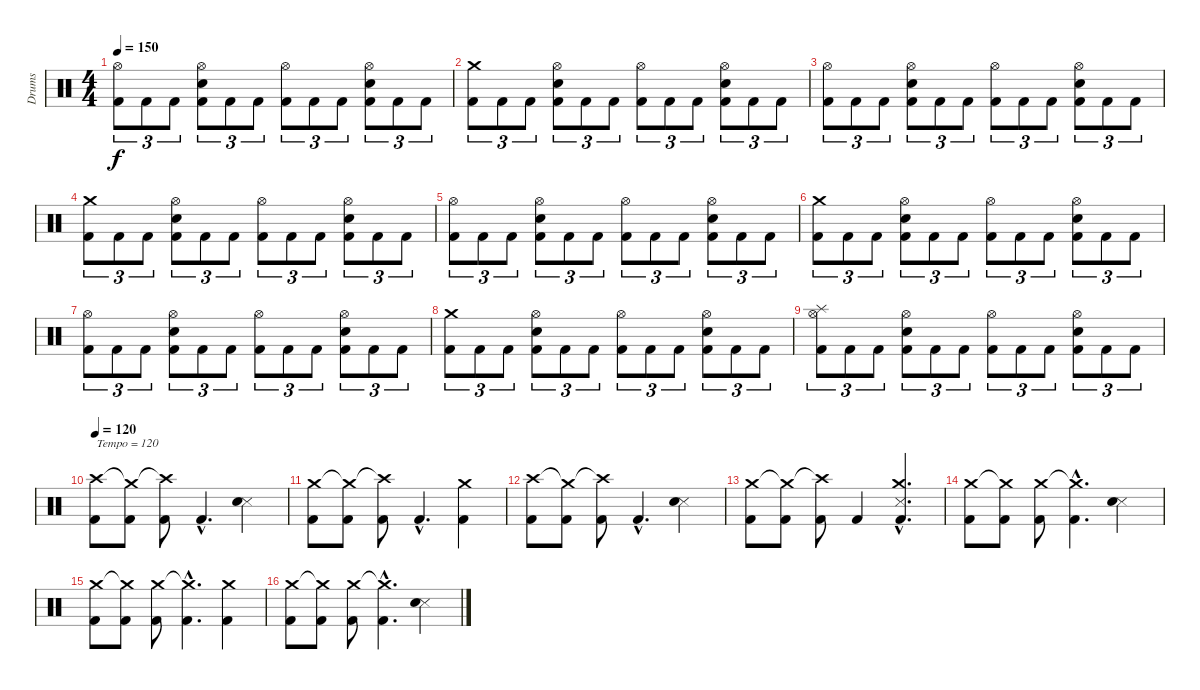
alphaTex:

\track ("Drums" "Drums") {instrument percussion}
\staff {score}
\articulation defaults
\ts (4 4)
\tempo 150
\clef neutral
\ks c
("Hi-Hat (open)" "Kick (hit) 2").8{tu (3 2) dy f} "Kick (hit) 2".8{tu (3 2)} "Kick (hit) 2".8{tu (3 2)} ("Hi-Hat (open)" "Electric Snare (hit)" "Kick (hit) 2").8{tu (3 2)} "Kick (hit) 2".8{tu (3 2)} "Kick (hit) 2".8{tu (3 2)} ("Hi-Hat (open)" "Kick (hit) 2").8{tu (3 2)} "Kick (hit) 2".8{tu (3 2)} "Kick (hit) 2".8{tu (3 2)} ("Hi-Hat (open)" "Electric Snare (hit)" "Kick (hit) 2").8{tu (3 2)} "Kick (hit) 2".8{tu (3 2)} "Kick (hit) 2".8{tu (3 2)} |
("Crash medium (hit)" "Kick (hit) 2").8{tu (3 2)} "Kick (hit) 2".8{tu (3 2)} "Kick (hit) 2".8{tu (3 2)} ("Hi-Hat (open)" "Electric Snare (hit)" "Kick (hit) 2").8{tu (3 2)} "Kick (hit) 2".8{tu (3 2)} "Kick (hit) 2".8{tu (3 2)} ("Hi-Hat (open)" "Kick (hit) 2").8{tu (3 2)} "Kick (hit) 2".8{tu (3 2)} "Kick (hit) 2".8{tu (3 2)} ("Hi-Hat (open)" "Electric Snare (hit)" "Kick (hit) 2").8{tu (3 2)} "Kick (hit) 2".8{tu (3 2)} "Kick (hit) 2".8{tu (3 2)} |
("Hi-Hat (open)" "Kick (hit) 2").8{tu (3 2)} "Kick (hit) 2".8{tu (3 2)} "Kick (hit) 2".8{tu (3 2)} ("Hi-Hat (open)" "Electric Snare (hit)" "Kick (hit) 2").8{tu (3 2)} "Kick (hit) 2".8{tu (3 2)} "Kick (hit) 2".8{tu (3 2)} ("Hi-Hat (open)" "Kick (hit) 2").8{tu (3 2)} "Kick (hit) 2".8{tu (3 2)} "Kick (hit) 2".8{tu (3 2)} ("Hi-Hat (open)" "Electric Snare (hit)" "Kick (hit) 2").8{tu (3 2)} "Kick (hit) 2".8{tu (3 2)} "Kick (hit) 2".8{tu (3 2)} |
("Crash medium (hit)" "Kick (hit) 2").8{tu (3 2)} "Kick (hit) 2".8{tu (3 2)} "Kick (hit) 2".8{tu (3 2)} ("Hi-Hat (open)" "Electric Snare (hit)" "Kick (hit) 2").8{tu (3 2)} "Kick (hit) 2".8{tu (3 2)} "Kick (hit) 2".8{tu (3 2)} ("Hi-Hat (open)" "Kick (hit) 2").8{tu (3 2)} "Kick (hit) 2".8{tu (3 2)} "Kick (hit) 2".8{tu (3 2)} ("Hi-Hat (open)" "Electric Snare (hit)" "Kick (hit) 2").8{tu (3 2)} "Kick (hit) 2".8{tu (3 2)} "Kick (hit) 2".8{tu (3 2)} |
("Hi-Hat (open)" "Kick (hit) 2").8{tu (3 2)} "Kick (hit) 2".8{tu (3 2)} "Kick (hit) 2".8{tu (3 2)} ("Hi-Hat (open)" "Electric Snare (hit)" "Kick (hit) 2").8{tu (3 2)} "Kick (hit) 2".8{tu (3 2)} "Kick (hit) 2".8{tu (3 2)} ("Hi-Hat (open)" "Kick (hit) 2").8{tu (3 2)} "Kick (hit) 2".8{tu (3 2)} "Kick (hit) 2".8{tu (3 2)} ("Hi-Hat (open)" "Electric Snare (hit)" "Kick (hit) 2").8{tu (3 2)} "Kick (hit) 2".8{tu (3 2)} "Kick (hit) 2".8{tu (3 2)} |
("Crash medium (hit)" "Kick (hit) 2").8{tu (3 2)} "Kick (hit) 2".8{tu (3 2)} "Kick (hit) 2".8{tu (3 2)} ("Hi-Hat (open)" "Electric Snare (hit)" "Kick (hit) 2").8{tu (3 2)} "Kick (hit) 2".8{tu (3 2)} "Kick (hit) 2".8{tu (3 2)} ("Hi-Hat (open)" "Kick (hit) 2").8{tu (3 2)} "Kick (hit) 2".8{tu (3 2)} "Kick (hit) 2".8{tu (3 2)} ("Hi-Hat (open)" "Electric Snare (hit)" "Kick (hit) 2").8{tu (3 2)} "Kick (hit) 2".8{tu (3 2)} "Kick (hit) 2".8{tu (3 2)} |
("Hi-Hat (open)" "Kick (hit) 2").8{tu (3 2)} "Kick (hit) 2".8{tu (3 2)} "Kick (hit) 2".8{tu (3 2)} ("Hi-Hat (open)" "Electric Snare (hit)" "Kick (hit) 2").8{tu (3 2)} "Kick (hit) 2".8{tu (3 2)} "Kick (hit) 2".8{tu (3 2)} ("Hi-Hat (open)" "Kick (hit) 2").8{tu (3 2)} "Kick (hit) 2".8{tu (3 2)} "Kick (hit) 2".8{tu (3 2)} ("Hi-Hat (open)" "Electric Snare (hit)" "Kick (hit) 2").8{tu (3 2)} "Kick (hit) 2".8{tu (3 2)} "Kick (hit) 2".8{tu (3 2)} |
("Crash medium (hit)" "Kick (hit) 2").8{tu (3 2)} "Kick (hit) 2".8{tu (3 2)} "Kick (hit) 2".8{tu (3 2)} ("Hi-Hat (open)" "Electric Snare (hit)" "Kick (hit) 2").8{tu (3 2)} "Kick (hit) 2".8{tu (3 2)} "Kick (hit) 2".8{tu (3 2)} ("Hi-Hat (open)" "Kick (hit) 2").8{tu (3 2)} "Kick (hit) 2".8{tu (3 2)} "Kick (hit) 2".8{tu (3 2)} ("Hi-Hat (open)" "Electric Snare (hit)" "Kick (hit) 2").8{tu (3 2)} "Kick (hit) 2".8{tu (3 2)} "Kick (hit) 2".8{tu (3 2)} |
("Splash (hit)" "Hi-Hat (open)" "Kick (hit) 2").8{tu (3 2)} "Kick (hit) 2".8{tu (3 2)} "Kick (hit) 2".8{tu (3 2)} ("Hi-Hat (open)" "Electric Snare (hit)" "Kick (hit) 2").8{tu (3 2)} "Kick (hit) 2".8{tu (3 2)} "Kick (hit) 2".8{tu (3 2)} ("Hi-Hat (open)" "Kick (hit) 2").8{tu (3 2)} "Kick (hit) 2".8{tu (3 2)} "Kick (hit) 2".8{tu (3 2)} ("Hi-Hat (open)" "Electric Snare (hit)" "Kick (hit) 2").8{tu (3 2)} "Kick (hit) 2".8{tu (3 2)} "Kick (hit) 2".8{tu (3 2)} |
\tempo 120
("Crash high (hit)" "Kick (hit) 2").8{txt "Tempo = 120"} ("Crash medium (hit)"{t} "Kick (hit) 2").8 ("Crash high (hit)"{t} "Kick (hit) 2").8 "Kick (hit) 2"{hac}.4{d} ("Snare (side stick) 3" "Electric Snare (hit)").4 |
("Crash medium (hit)" "Kick (hit) 2").8 ("Crash medium (hit)"{t} "Kick (hit) 2").8 ("Crash high (hit)"{t} "Kick (hit) 2").8 "Kick (hit) 2"{hac}.4{d} ("Crash medium (hit)" "Kick (hit) 2").4 |
("Crash high (hit)" "Kick (hit) 2").8 ("Crash medium (hit)"{t} "Kick (hit) 2").8 ("Crash high (hit)"{t} "Kick (hit) 2").8 "Kick (hit) 2"{hac}.4{d} ("Snare (side stick) 3" "Electric Snare (hit)").4 |
("Crash medium (hit)" "Kick (hit) 2").8 ("Crash medium (hit)"{t} "Kick (hit) 2").8 ("Crash high (hit)"{t} "Kick (hit) 2").8 "Kick (hit) 2".4 ("Crash medium (hit)"{hac} "Snare (side stick) 3"{hac} "Kick (hit) 2"{hac}).4{d} |
("Crash medium (hit)" "Kick (hit) 2").8 ("Crash medium (hit)"{t} "Kick (hit) 2").8 ("Crash medium (hit)" "Kick (hit) 2").8 ("Crash medium (hit)"{hac t} "Kick (hit) 2"{hac}).4{d} ("Snare (side stick) 3" "Electric Snare (hit)").4 |
("Crash medium (hit)" "Kick (hit) 2").8 ("Crash medium (hit)"{t} "Kick (hit) 2").8 ("Crash medium (hit)" "Kick (hit) 2").8 ("Crash medium (hit)"{hac t} "Kick (hit) 2"{hac}).4{d} ("Crash medium (hit)" "Kick (hit) 2").4 |
("Crash medium (hit)" "Kick (hit) 2").8 ("Crash medium (hit)"{t} "Kick (hit) 2").8 ("Crash medium (hit)" "Kick (hit) 2").8 ("Crash medium (hit)"{hac t} "Kick (hit) 2"{hac}).4{d} ("Snare (side stick) 3" "Electric Snare (hit)").4
